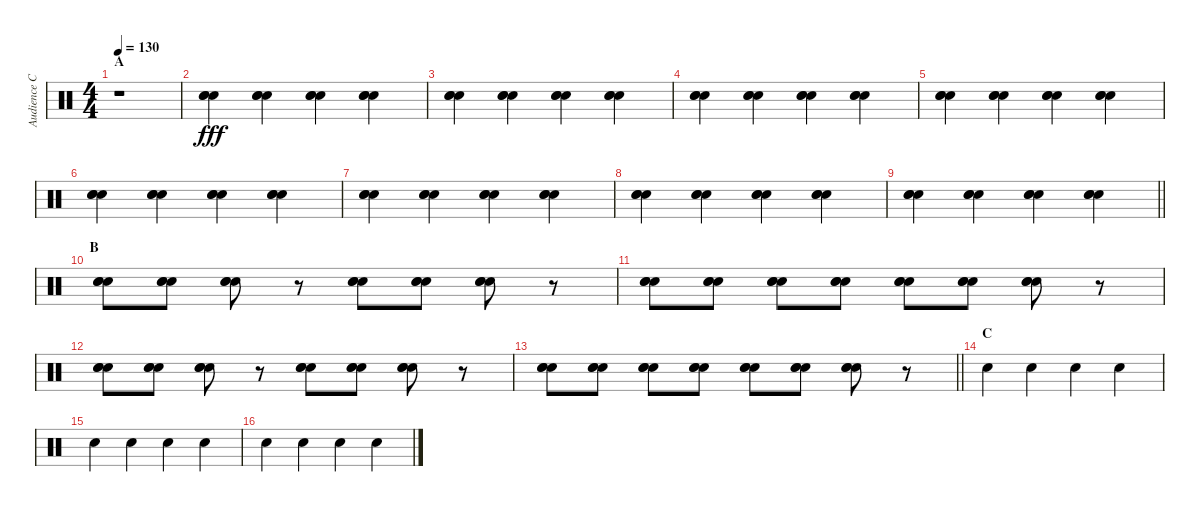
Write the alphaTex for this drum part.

\track ("Audience Claps" "Audience C") {instrument percussion}
\staff {score}
\articulation defaults
\ts (4 4)
\section ("" "A")
\tempo 130
\clef neutral
\ks c
r.1{dy fff} |
("Hand Clap (hit)" "Hand Clap (hit)" "Hand Clap (hit)").4{bd 60} ("Hand Clap (hit)" "Hand Clap (hit)" "Hand Clap (hit)").4{bd 60} ("Hand Clap (hit)" "Hand Clap (hit)" "Hand Clap (hit)").4{bd 60} ("Hand Clap (hit)" "Hand Clap (hit)" "Hand Clap (hit)").4{bd 60} |
("Hand Clap (hit)" "Hand Clap (hit)" "Hand Clap (hit)").4{bd 60} ("Hand Clap (hit)" "Hand Clap (hit)" "Hand Clap (hit)").4{bd 60} ("Hand Clap (hit)" "Hand Clap (hit)" "Hand Clap (hit)").4{bd 60} ("Hand Clap (hit)" "Hand Clap (hit)" "Hand Clap (hit)").4{bd 60} |
("Hand Clap (hit)" "Hand Clap (hit)" "Hand Clap (hit)").4{bd 60} ("Hand Clap (hit)" "Hand Clap (hit)" "Hand Clap (hit)").4{bd 60} ("Hand Clap (hit)" "Hand Clap (hit)" "Hand Clap (hit)").4{bd 60} ("Hand Clap (hit)" "Hand Clap (hit)" "Hand Clap (hit)").4{bd 60} |
("Hand Clap (hit)" "Hand Clap (hit)" "Hand Clap (hit)").4{bd 60} ("Hand Clap (hit)" "Hand Clap (hit)" "Hand Clap (hit)").4{bd 60} ("Hand Clap (hit)" "Hand Clap (hit)" "Hand Clap (hit)").4{bd 60} ("Hand Clap (hit)" "Hand Clap (hit)" "Hand Clap (hit)").4{bd 60} |
("Hand Clap (hit)" "Hand Clap (hit)" "Hand Clap (hit)").4{bd 60} ("Hand Clap (hit)" "Hand Clap (hit)" "Hand Clap (hit)").4{bd 60} ("Hand Clap (hit)" "Hand Clap (hit)" "Hand Clap (hit)").4{bd 60} ("Hand Clap (hit)" "Hand Clap (hit)" "Hand Clap (hit)").4{bd 60} |
("Hand Clap (hit)" "Hand Clap (hit)" "Hand Clap (hit)").4{bd 60} ("Hand Clap (hit)" "Hand Clap (hit)" "Hand Clap (hit)").4{bd 60} ("Hand Clap (hit)" "Hand Clap (hit)" "Hand Clap (hit)").4{bd 60} ("Hand Clap (hit)" "Hand Clap (hit)" "Hand Clap (hit)").4{bd 60} |
("Hand Clap (hit)" "Hand Clap (hit)" "Hand Clap (hit)").4{bd 60} ("Hand Clap (hit)" "Hand Clap (hit)" "Hand Clap (hit)").4{bd 60} ("Hand Clap (hit)" "Hand Clap (hit)" "Hand Clap (hit)").4{bd 60} ("Hand Clap (hit)" "Hand Clap (hit)" "Hand Clap (hit)").4{bd 60} |
\barLineRight lightlight
("Hand Clap (hit)" "Hand Clap (hit)" "Hand Clap (hit)").4{bd 60} ("Hand Clap (hit)" "Hand Clap (hit)" "Hand Clap (hit)").4{bd 60} ("Hand Clap (hit)" "Hand Clap (hit)" "Hand Clap (hit)").4{bd 60} ("Hand Clap (hit)" "Hand Clap (hit)" "Hand Clap (hit)").4{bd 60} |
\section ("" "B")
("Hand Clap (hit)" "Hand Clap (hit)" "Hand Clap (hit)").8{bd 60} ("Hand Clap (hit)" "Hand Clap (hit)" "Hand Clap (hit)").8{bd 60} ("Hand Clap (hit)" "Hand Clap (hit)" "Hand Clap (hit)").8{bd 60} r.8 ("Hand Clap (hit)" "Hand Clap (hit)" "Hand Clap (hit)").8{bd 60} ("Hand Clap (hit)" "Hand Clap (hit)" "Hand Clap (hit)").8{bd 60} ("Hand Clap (hit)" "Hand Clap (hit)" "Hand Clap (hit)").8{bd 60} r.8 |
("Hand Clap (hit)" "Hand Clap (hit)" "Hand Clap (hit)").8{bd 60} ("Hand Clap (hit)" "Hand Clap (hit)" "Hand Clap (hit)").8{bd 60} ("Hand Clap (hit)" "Hand Clap (hit)" "Hand Clap (hit)").8{bd 60} ("Hand Clap (hit)" "Hand Clap (hit)" "Hand Clap (hit)").8{bd 60} ("Hand Clap (hit)" "Hand Clap (hit)" "Hand Clap (hit)").8{bd 60} ("Hand Clap (hit)" "Hand Clap (hit)" "Hand Clap (hit)").8{bd 60} ("Hand Clap (hit)" "Hand Clap (hit)" "Hand Clap (hit)").8{bd 60} r.8 |
("Hand Clap (hit)" "Hand Clap (hit)" "Hand Clap (hit)").8{bd 60} ("Hand Clap (hit)" "Hand Clap (hit)" "Hand Clap (hit)").8{bd 60} ("Hand Clap (hit)" "Hand Clap (hit)" "Hand Clap (hit)").8{bd 60} r.8 ("Hand Clap (hit)" "Hand Clap (hit)" "Hand Clap (hit)").8{bd 60} ("Hand Clap (hit)" "Hand Clap (hit)" "Hand Clap (hit)").8{bd 60} ("Hand Clap (hit)" "Hand Clap (hit)" "Hand Clap (hit)").8{bd 60} r.8 |
\barLineRight lightlight
("Hand Clap (hit)" "Hand Clap (hit)" "Hand Clap (hit)").8{bd 60} ("Hand Clap (hit)" "Hand Clap (hit)" "Hand Clap (hit)").8{bd 60} ("Hand Clap (hit)" "Hand Clap (hit)" "Hand Clap (hit)").8{bd 60} ("Hand Clap (hit)" "Hand Clap (hit)" "Hand Clap (hit)").8{bd 60} ("Hand Clap (hit)" "Hand Clap (hit)" "Hand Clap (hit)").8{bd 60} ("Hand Clap (hit)" "Hand Clap (hit)" "Hand Clap (hit)").8{bd 60} ("Hand Clap (hit)" "Hand Clap (hit)" "Hand Clap (hit)").8{bd 60} r.8 |
\section ("" "C")
"Hand Clap (hit)".4 "Hand Clap (hit)".4 "Hand Clap (hit)".4 "Hand Clap (hit)".4 |
"Hand Clap (hit)".4 "Hand Clap (hit)".4 "Hand Clap (hit)".4 "Hand Clap (hit)".4 |
"Hand Clap (hit)".4 "Hand Clap (hit)".4 "Hand Clap (hit)".4 "Hand Clap (hit)".4
